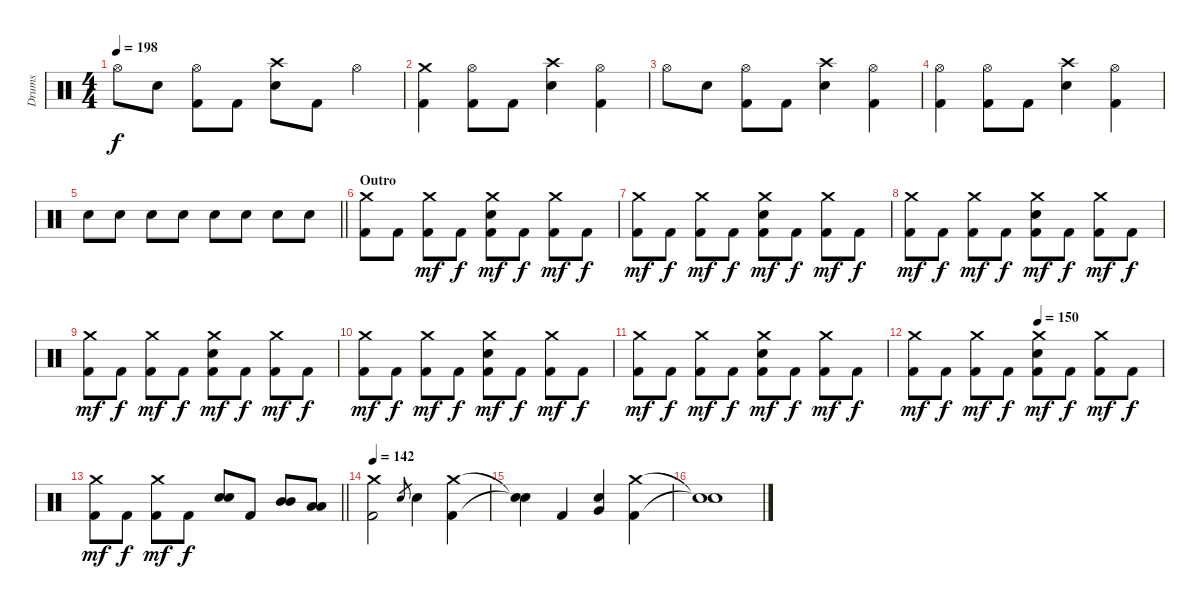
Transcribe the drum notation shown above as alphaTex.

\track ("Drums" "Drums") {instrument percussion}
\staff {score}
\articulation defaults
\ts (4 4)
\tempo 198
\clef neutral
\ks c "Hi-Hat (open)".8{dy f} "Snare (hit) 2".8
("Hi-Hat (open)" "Kick (hit) 2").8 "Kick (hit) 2".8 ("Crash high (hit)" "Snare (hit) 2").8 "Kick (hit) 2".8 "Hi-Hat (open)".4 |
("Crash medium (hit)" "Kick (hit) 2").4 ("Hi-Hat (open)" "Kick (hit) 2").8 "Kick (hit) 2".8 ("Crash high (hit)" "Snare (hit) 2").4 ("Hi-Hat (open)" "Kick (hit) 2").4 |
"Hi-Hat (open)".8 "Snare (hit) 2".8 ("Hi-Hat (open)" "Kick (hit) 2").8 "Kick (hit) 2".8 ("Crash high (hit)" "Snare (hit) 2").4 ("Hi-Hat (open)" "Kick (hit) 2").4 |
("Hi-Hat (open)" "Kick (hit) 2").4 ("Hi-Hat (open)" "Kick (hit) 2").8 "Kick (hit) 2".8 ("Crash high (hit)" "Snare (hit) 2").4 ("Hi-Hat (open)" "Kick (hit) 2").4 |
\barLineRight lightlight "Snare (hit) 2".8 "Snare (hit) 2".8 "Snare (hit) 2".8 "Snare (hit) 2".8 "Snare (hit) 2".8 "Snare (hit) 2".8 "Snare (hit) 2".8 "Snare (hit) 2".8
|
\section ("" "Outro")
("Crash medium (hit)" "Kick (hit) 2").8 "Kick (hit) 2".8 ("Crash medium (hit)" "Kick (hit) 2").8{dy mf} "Kick (hit) 2".8{dy f} ("Crash medium (hit)" "Snare (hit) 2" "Kick (hit) 2").8{dy mf} "Kick (hit) 2".8{dy f} ("Crash medium (hit)" "Kick (hit) 2").8{dy mf} "Kick (hit) 2".8{dy f} |
("Crash medium (hit)" "Kick (hit) 2").8{dy mf} "Kick (hit) 2".8{dy f} ("Crash medium (hit)" "Kick (hit) 2").8{dy mf} "Kick (hit) 2".8{dy f} ("Crash medium (hit)" "Snare (hit) 2" "Kick (hit) 2").8{dy mf} "Kick (hit) 2".8{dy f} ("Crash medium (hit)" "Kick (hit) 2").8{dy mf} "Kick (hit) 2".8{dy f} |
("Crash medium (hit)" "Kick (hit) 2").8{dy mf} "Kick (hit) 2".8{dy f} ("Crash medium (hit)" "Kick (hit) 2").8{dy mf} "Kick (hit) 2".8{dy f} ("Crash medium (hit)" "Snare (hit) 2" "Kick (hit) 2").8{dy mf} "Kick (hit) 2".8{dy f} ("Crash medium (hit)" "Kick (hit) 2").8{dy mf} "Kick (hit) 2".8{dy f} |
("Crash medium (hit)" "Kick (hit) 2").8{dy mf} "Kick (hit) 2".8{dy f} ("Crash medium (hit)" "Kick (hit) 2").8{dy mf} "Kick (hit) 2".8{dy f} ("Crash medium (hit)" "Snare (hit) 2" "Kick (hit) 2").8{dy mf} "Kick (hit) 2".8{dy f} ("Crash medium (hit)" "Kick (hit) 2").8{dy mf} "Kick (hit) 2".8{dy f} |
("Crash medium (hit)" "Kick (hit) 2").8{dy mf} "Kick (hit) 2".8{dy f} ("Crash medium (hit)" "Kick (hit) 2").8{dy mf} "Kick (hit) 2".8{dy f} ("Crash medium (hit)" "Snare (hit) 2" "Kick (hit) 2").8{dy mf} "Kick (hit) 2".8{dy f} ("Crash medium (hit)" "Kick (hit) 2").8{dy mf} "Kick (hit) 2".8{dy f} |
("Crash medium (hit)" "Kick (hit) 2").8{dy mf} "Kick (hit) 2".8{dy f} ("Crash medium (hit)" "Kick (hit) 2").8{dy mf} "Kick (hit) 2".8{dy f} ("Crash medium (hit)" "Snare (hit) 2" "Kick (hit) 2").8{dy mf} "Kick (hit) 2".8{dy f} ("Crash medium (hit)" "Kick (hit) 2").8{dy mf} "Kick (hit) 2".8{dy f} |
\tempo (150 0.5)
("Crash medium (hit)" "Kick (hit) 2").8{dy mf} "Kick (hit) 2".8{dy f} ("Crash medium (hit)" "Kick (hit) 2").8{dy mf} "Kick (hit) 2".8{dy f} ("Crash medium (hit)" "Snare (hit) 2" "Kick (hit) 2").8{dy mf} "Kick (hit) 2".8{dy f} ("Crash medium (hit)" "Kick (hit) 2").8{dy mf} "Kick (hit) 2".8{dy f} |
\barLineRight lightlight
("Crash medium (hit)" "Kick (hit) 2").8{dy mf} "Kick (hit) 2".8{dy f} ("Crash medium (hit)" "Kick (hit) 2").8{dy mf} "Kick (hit) 2".8{dy f} ("Snare (hit) 2" "Snare (hit) 2").8{bd 120} "Kick (hit) 2".8 ("Mid Tom (hit)" "Mid Tom (hit)").8 ("Low Tom (hit)" "Low Tom (hit)").8 |
\section ("" "")
\tempo 142
("Crash medium (hit)" "Kick (hit) 2").2 "Snare (hit) 2".8{gr} "Snare (hit) 2".4 ("Crash medium (hit)" "Kick (hit) 2").4 |
("Snare (hit)"{t} "Snare (hit)"{t}).4 "Kick (hit) 2".4 ("Snare (hit) 2" "Very Low Tom (hit)").4 ("Crash medium (hit)" "Kick (hit) 2").4 |
("Snare (hit)"{t} "Snare (hit)"{t}).1
